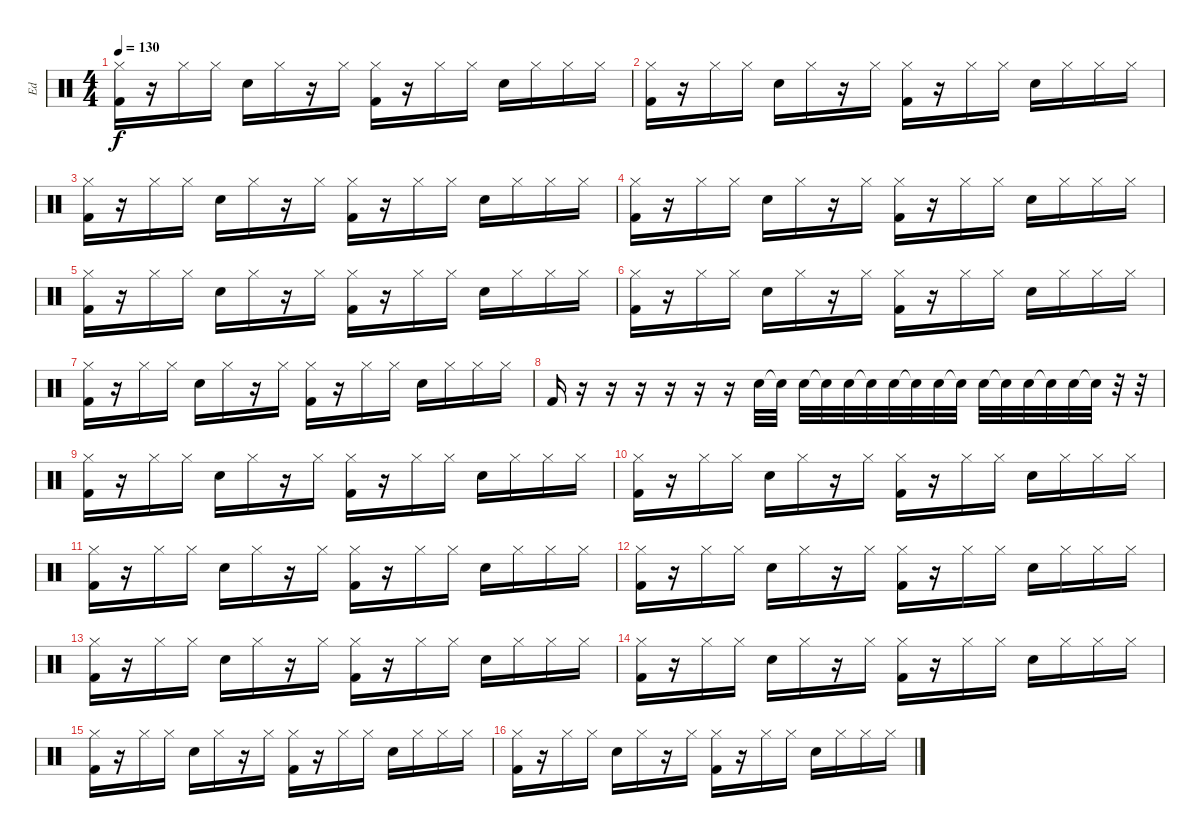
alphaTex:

\track ("Ed" "Ed") {instrument percussion}
\staff {score}
\articulation defaults
\ts (4 4)
\tempo 130
\clef neutral
\ks c
("Hi-Hat (closed)" "Kick (hit) 2").16{dy f} r.16 "Hi-Hat (closed)".16 "Hi-Hat (closed)".16 "Snare (hit) 2".16 "Hi-Hat (closed)".16 r.16 "Hi-Hat (closed)".16 ("Hi-Hat (closed)" "Kick (hit) 2").16 r.16 "Hi-Hat (closed)".16 "Hi-Hat (closed)".16 "Snare (hit) 2".16 "Hi-Hat (closed)".16 "Hi-Hat (closed)".16 "Hi-Hat (closed)".16 |
("Hi-Hat (closed)" "Kick (hit) 2").16 r.16 "Hi-Hat (closed)".16 "Hi-Hat (closed)".16 "Snare (hit) 2".16 "Hi-Hat (closed)".16 r.16 "Hi-Hat (closed)".16 ("Hi-Hat (closed)" "Kick (hit) 2").16 r.16 "Hi-Hat (closed)".16 "Hi-Hat (closed)".16 "Snare (hit) 2".16 "Hi-Hat (closed)".16 "Hi-Hat (closed)".16 "Hi-Hat (closed)".16 |
("Hi-Hat (closed)" "Kick (hit) 2").16 r.16 "Hi-Hat (closed)".16 "Hi-Hat (closed)".16 "Snare (hit) 2".16 "Hi-Hat (closed)".16 r.16 "Hi-Hat (closed)".16 ("Hi-Hat (closed)" "Kick (hit) 2").16 r.16 "Hi-Hat (closed)".16 "Hi-Hat (closed)".16 "Snare (hit) 2".16 "Hi-Hat (closed)".16 "Hi-Hat (closed)".16 "Hi-Hat (closed)".16 |
("Hi-Hat (closed)" "Kick (hit) 2").16 r.16 "Hi-Hat (closed)".16 "Hi-Hat (closed)".16 "Snare (hit) 2".16 "Hi-Hat (closed)".16 r.16 "Hi-Hat (closed)".16 ("Hi-Hat (closed)" "Kick (hit) 2").16 r.16 "Hi-Hat (closed)".16 "Hi-Hat (closed)".16 "Snare (hit) 2".16 "Hi-Hat (closed)".16 "Hi-Hat (closed)".16 "Hi-Hat (closed)".16 |
("Hi-Hat (closed)" "Kick (hit) 2").16 r.16 "Hi-Hat (closed)".16 "Hi-Hat (closed)".16 "Snare (hit) 2".16 "Hi-Hat (closed)".16 r.16 "Hi-Hat (closed)".16 ("Hi-Hat (closed)" "Kick (hit) 2").16 r.16 "Hi-Hat (closed)".16 "Hi-Hat (closed)".16 "Snare (hit) 2".16 "Hi-Hat (closed)".16 "Hi-Hat (closed)".16 "Hi-Hat (closed)".16 |
("Hi-Hat (closed)" "Kick (hit) 2").16 r.16 "Hi-Hat (closed)".16 "Hi-Hat (closed)".16 "Snare (hit) 2".16 "Hi-Hat (closed)".16 r.16 "Hi-Hat (closed)".16 ("Hi-Hat (closed)" "Kick (hit) 2").16 r.16 "Hi-Hat (closed)".16 "Hi-Hat (closed)".16 "Snare (hit) 2".16 "Hi-Hat (closed)".16 "Hi-Hat (closed)".16 "Hi-Hat (closed)".16 |
("Hi-Hat (closed)" "Kick (hit) 2").16 r.16 "Hi-Hat (closed)".16 "Hi-Hat (closed)".16 "Snare (hit) 2".16 "Hi-Hat (closed)".16 r.16 "Hi-Hat (closed)".16 ("Hi-Hat (closed)" "Kick (hit) 2").16 r.16 "Hi-Hat (closed)".16 "Hi-Hat (closed)".16 "Snare (hit) 2".16 "Hi-Hat (closed)".16 "Hi-Hat (closed)".16 "Hi-Hat (closed)".16 |
"Kick (hit) 2".16 r.16 r.16 r.16 r.16 r.16 r.16 "Snare (hit) 2".32 "Snare (hit) 2"{t}.32 "Snare (hit) 2".32 "Snare (hit) 2"{t}.32 "Snare (hit) 2".32 "Snare (hit) 2"{t}.32 "Snare (hit) 2".32 "Snare (hit) 2"{t}.32 "Snare (hit) 2".32 "Snare (hit) 2"{t}.32 "Snare (hit) 2".32 "Snare (hit) 2"{t}.32 "Snare (hit) 2".32 "Snare (hit) 2"{t}.32 "Snare (hit) 2".32 "Snare (hit) 2"{t}.32 r.32 r.32 |
("Hi-Hat (closed)" "Kick (hit) 2").16 r.16 "Hi-Hat (closed)".16 "Hi-Hat (closed)".16 "Snare (hit) 2".16 "Hi-Hat (closed)".16 r.16 "Hi-Hat (closed)".16 ("Hi-Hat (closed)" "Kick (hit) 2").16 r.16 "Hi-Hat (closed)".16 "Hi-Hat (closed)".16 "Snare (hit) 2".16 "Hi-Hat (closed)".16 "Hi-Hat (closed)".16 "Hi-Hat (closed)".16 |
("Hi-Hat (closed)" "Kick (hit) 2").16 r.16 "Hi-Hat (closed)".16 "Hi-Hat (closed)".16 "Snare (hit) 2".16 "Hi-Hat (closed)".16 r.16 "Hi-Hat (closed)".16 ("Hi-Hat (closed)" "Kick (hit) 2").16 r.16 "Hi-Hat (closed)".16 "Hi-Hat (closed)".16 "Snare (hit) 2".16 "Hi-Hat (closed)".16 "Hi-Hat (closed)".16 "Hi-Hat (closed)".16 |
("Hi-Hat (closed)" "Kick (hit) 2").16 r.16 "Hi-Hat (closed)".16 "Hi-Hat (closed)".16 "Snare (hit) 2".16 "Hi-Hat (closed)".16 r.16 "Hi-Hat (closed)".16 ("Hi-Hat (closed)" "Kick (hit) 2").16 r.16 "Hi-Hat (closed)".16 "Hi-Hat (closed)".16 "Snare (hit) 2".16 "Hi-Hat (closed)".16 "Hi-Hat (closed)".16 "Hi-Hat (closed)".16 |
("Hi-Hat (closed)" "Kick (hit) 2").16 r.16 "Hi-Hat (closed)".16 "Hi-Hat (closed)".16 "Snare (hit) 2".16 "Hi-Hat (closed)".16 r.16 "Hi-Hat (closed)".16 ("Hi-Hat (closed)" "Kick (hit) 2").16 r.16 "Hi-Hat (closed)".16 "Hi-Hat (closed)".16 "Snare (hit) 2".16 "Hi-Hat (closed)".16 "Hi-Hat (closed)".16 "Hi-Hat (closed)".16 |
("Hi-Hat (closed)" "Kick (hit) 2").16 r.16 "Hi-Hat (closed)".16 "Hi-Hat (closed)".16 "Snare (hit) 2".16 "Hi-Hat (closed)".16 r.16 "Hi-Hat (closed)".16 ("Hi-Hat (closed)" "Kick (hit) 2").16 r.16 "Hi-Hat (closed)".16 "Hi-Hat (closed)".16 "Snare (hit) 2".16 "Hi-Hat (closed)".16 "Hi-Hat (closed)".16 "Hi-Hat (closed)".16 |
("Hi-Hat (closed)" "Kick (hit) 2").16 r.16 "Hi-Hat (closed)".16 "Hi-Hat (closed)".16 "Snare (hit) 2".16 "Hi-Hat (closed)".16 r.16 "Hi-Hat (closed)".16 ("Hi-Hat (closed)" "Kick (hit) 2").16 r.16 "Hi-Hat (closed)".16 "Hi-Hat (closed)".16 "Snare (hit) 2".16 "Hi-Hat (closed)".16 "Hi-Hat (closed)".16 "Hi-Hat (closed)".16 |
("Hi-Hat (closed)" "Kick (hit) 2").16 r.16 "Hi-Hat (closed)".16 "Hi-Hat (closed)".16 "Snare (hit) 2".16 "Hi-Hat (closed)".16 r.16 "Hi-Hat (closed)".16 ("Hi-Hat (closed)" "Kick (hit) 2").16 r.16 "Hi-Hat (closed)".16 "Hi-Hat (closed)".16 "Snare (hit) 2".16 "Hi-Hat (closed)".16 "Hi-Hat (closed)".16 "Hi-Hat (closed)".16 |
("Hi-Hat (closed)" "Kick (hit) 2").16 r.16 "Hi-Hat (closed)".16 "Hi-Hat (closed)".16 "Snare (hit) 2".16 "Hi-Hat (closed)".16 r.16 "Hi-Hat (closed)".16 ("Hi-Hat (closed)" "Kick (hit) 2").16 r.16 "Hi-Hat (closed)".16 "Hi-Hat (closed)".16 "Snare (hit) 2".16 "Hi-Hat (closed)".16 "Hi-Hat (closed)".16 "Hi-Hat (closed)".16
